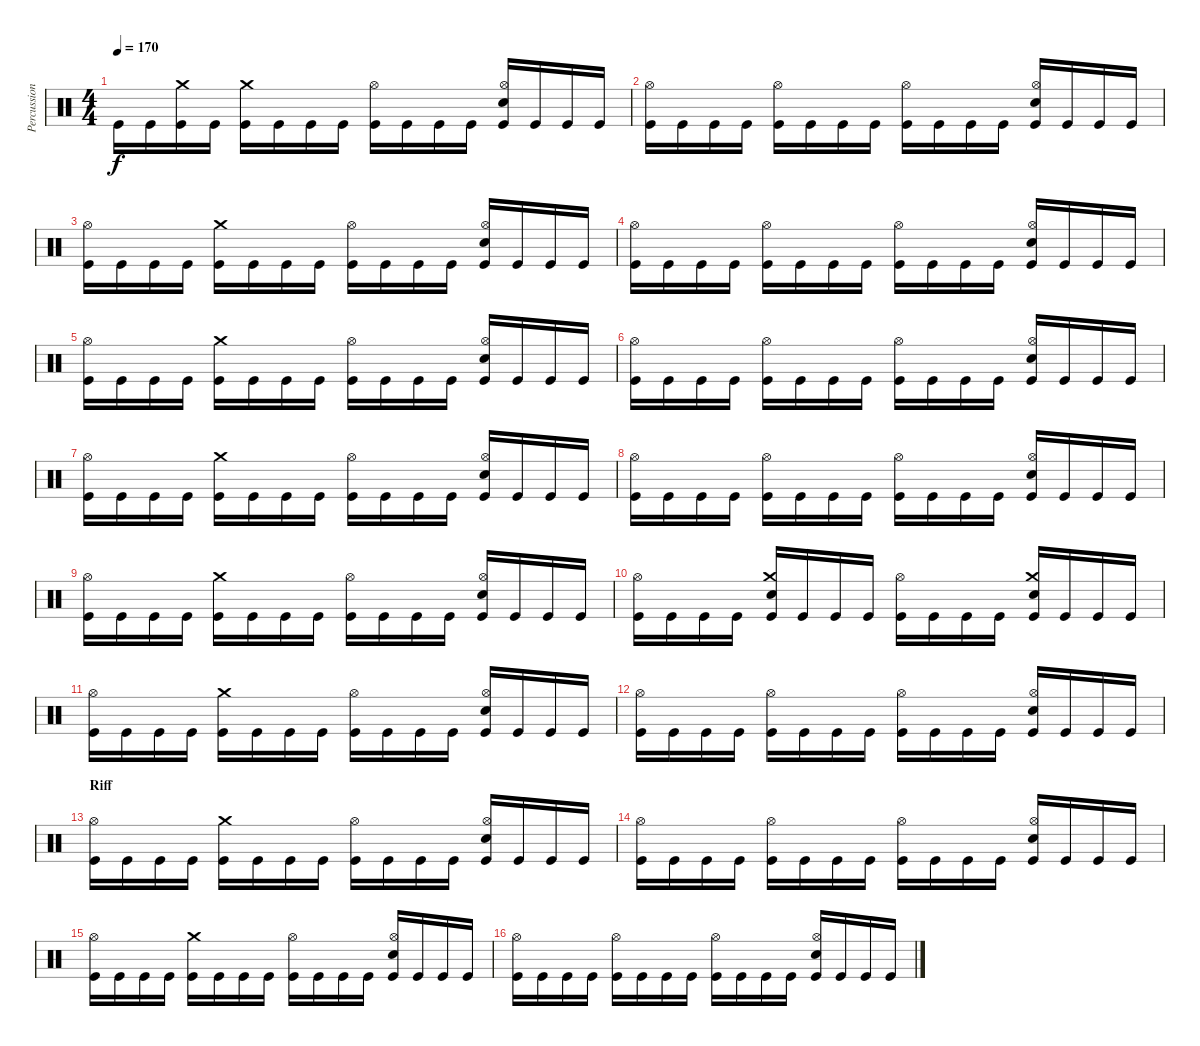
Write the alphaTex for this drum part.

\track ("Percussion" "Percussion") {instrument percussion}
\staff {score}
\articulation defaults
\ts (4 4)
\tempo 170
\clef neutral
\ks c "Kick (hit)".16{dy f} "Kick (hit)".16
("Crash medium (hit)" "Kick (hit)").16 "Kick (hit)".16 ("Crash medium (hit)" "Kick (hit)").16 "Kick (hit)".16 "Kick (hit)".16 "Kick (hit)".16 ("Hi-Hat (open)" "Kick (hit)").16 "Kick (hit)".16 "Kick (hit)".16 "Kick (hit)".16 ("Hi-Hat (open)" "Snare (hit) 2" "Kick (hit)").16 "Kick (hit)".16 "Kick (hit)".16 "Kick (hit)".16 |
("Hi-Hat (open)" "Kick (hit)").16 "Kick (hit)".16 "Kick (hit)".16 "Kick (hit)".16 ("Hi-Hat (open)" "Kick (hit)").16 "Kick (hit)".16 "Kick (hit)".16 "Kick (hit)".16 ("Hi-Hat (open)" "Kick (hit)").16 "Kick (hit)".16 "Kick (hit)".16 "Kick (hit)".16 ("Hi-Hat (open)" "Snare (hit) 2" "Kick (hit)").16 "Kick (hit)".16 "Kick (hit)".16 "Kick (hit)".16 |
("Hi-Hat (open)" "Kick (hit)").16 "Kick (hit)".16 "Kick (hit)".16 "Kick (hit)".16 ("Crash medium (hit)" "Kick (hit)").16 "Kick (hit)".16 "Kick (hit)".16 "Kick (hit)".16 ("Hi-Hat (open)" "Kick (hit)").16 "Kick (hit)".16 "Kick (hit)".16 "Kick (hit)".16 ("Hi-Hat (open)" "Snare (hit) 2" "Kick (hit)").16 "Kick (hit)".16 "Kick (hit)".16 "Kick (hit)".16 |
("Hi-Hat (open)" "Kick (hit)").16 "Kick (hit)".16 "Kick (hit)".16 "Kick (hit)".16 ("Hi-Hat (open)" "Kick (hit)").16 "Kick (hit)".16 "Kick (hit)".16 "Kick (hit)".16 ("Hi-Hat (open)" "Kick (hit)").16 "Kick (hit)".16 "Kick (hit)".16 "Kick (hit)".16 ("Hi-Hat (open)" "Snare (hit) 2" "Kick (hit)").16 "Kick (hit)".16 "Kick (hit)".16 "Kick (hit)".16 |
("Hi-Hat (open)" "Kick (hit)").16 "Kick (hit)".16 "Kick (hit)".16 "Kick (hit)".16 ("Crash medium (hit)" "Kick (hit)").16 "Kick (hit)".16 "Kick (hit)".16 "Kick (hit)".16 ("Hi-Hat (open)" "Kick (hit)").16 "Kick (hit)".16 "Kick (hit)".16 "Kick (hit)".16 ("Hi-Hat (open)" "Snare (hit) 2" "Kick (hit)").16 "Kick (hit)".16 "Kick (hit)".16 "Kick (hit)".16 |
("Hi-Hat (open)" "Kick (hit)").16 "Kick (hit)".16 "Kick (hit)".16 "Kick (hit)".16 ("Hi-Hat (open)" "Kick (hit)").16 "Kick (hit)".16 "Kick (hit)".16 "Kick (hit)".16 ("Hi-Hat (open)" "Kick (hit)").16 "Kick (hit)".16 "Kick (hit)".16 "Kick (hit)".16 ("Hi-Hat (open)" "Snare (hit) 2" "Kick (hit)").16 "Kick (hit)".16 "Kick (hit)".16 "Kick (hit)".16 |
("Hi-Hat (open)" "Kick (hit)").16 "Kick (hit)".16 "Kick (hit)".16 "Kick (hit)".16 ("Crash medium (hit)" "Kick (hit)").16 "Kick (hit)".16 "Kick (hit)".16 "Kick (hit)".16 ("Hi-Hat (open)" "Kick (hit)").16 "Kick (hit)".16 "Kick (hit)".16 "Kick (hit)".16 ("Hi-Hat (open)" "Snare (hit) 2" "Kick (hit)").16 "Kick (hit)".16 "Kick (hit)".16 "Kick (hit)".16 |
("Hi-Hat (open)" "Kick (hit)").16 "Kick (hit)".16 "Kick (hit)".16 "Kick (hit)".16 ("Hi-Hat (open)" "Kick (hit)").16 "Kick (hit)".16 "Kick (hit)".16 "Kick (hit)".16 ("Hi-Hat (open)" "Kick (hit)").16 "Kick (hit)".16 "Kick (hit)".16 "Kick (hit)".16 ("Hi-Hat (open)" "Snare (hit) 2" "Kick (hit)").16 "Kick (hit)".16 "Kick (hit)".16 "Kick (hit)".16 |
("Hi-Hat (open)" "Kick (hit)").16 "Kick (hit)".16 "Kick (hit)".16 "Kick (hit)".16 ("Crash medium (hit)" "Kick (hit)").16 "Kick (hit)".16 "Kick (hit)".16 "Kick (hit)".16 ("Hi-Hat (open)" "Kick (hit)").16 "Kick (hit)".16 "Kick (hit)".16 "Kick (hit)".16 ("Hi-Hat (open)" "Snare (hit) 2" "Kick (hit)").16 "Kick (hit)".16 "Kick (hit)".16 "Kick (hit)".16 |
("Hi-Hat (open)" "Kick (hit)").16 "Kick (hit)".16 "Kick (hit)".16 "Kick (hit)".16 ("Crash medium (hit)" "Snare (hit) 2" "Kick (hit)").16 "Kick (hit)".16 "Kick (hit)".16 "Kick (hit)".16 ("Hi-Hat (open)" "Kick (hit)").16 "Kick (hit)".16 "Kick (hit)".16 "Kick (hit)".16 ("Crash medium (hit)" "Snare (hit) 2" "Kick (hit)").16 "Kick (hit)".16 "Kick (hit)".16 "Kick (hit)".16 |
("Hi-Hat (open)" "Kick (hit)").16 "Kick (hit)".16 "Kick (hit)".16 "Kick (hit)".16 ("Crash medium (hit)" "Kick (hit)").16 "Kick (hit)".16 "Kick (hit)".16 "Kick (hit)".16 ("Hi-Hat (open)" "Kick (hit)").16 "Kick (hit)".16 "Kick (hit)".16 "Kick (hit)".16 ("Hi-Hat (open)" "Snare (hit) 2" "Kick (hit)").16 "Kick (hit)".16 "Kick (hit)".16 "Kick (hit)".16 |
("Hi-Hat (open)" "Kick (hit)").16 "Kick (hit)".16 "Kick (hit)".16 "Kick (hit)".16 ("Hi-Hat (open)" "Kick (hit)").16 "Kick (hit)".16 "Kick (hit)".16 "Kick (hit)".16 ("Hi-Hat (open)" "Kick (hit)").16 "Kick (hit)".16 "Kick (hit)".16 "Kick (hit)".16 ("Hi-Hat (open)" "Snare (hit) 2" "Kick (hit)").16 "Kick (hit)".16 "Kick (hit)".16 "Kick (hit)".16 |
\section ("" "Riff")
("Hi-Hat (open)" "Kick (hit)").16 "Kick (hit)".16 "Kick (hit)".16 "Kick (hit)".16 ("Crash medium (hit)" "Kick (hit)").16 "Kick (hit)".16 "Kick (hit)".16 "Kick (hit)".16 ("Hi-Hat (open)" "Kick (hit)").16 "Kick (hit)".16 "Kick (hit)".16 "Kick (hit)".16 ("Hi-Hat (open)" "Snare (hit) 2" "Kick (hit)").16 "Kick (hit)".16 "Kick (hit)".16 "Kick (hit)".16 |
("Hi-Hat (open)" "Kick (hit)").16 "Kick (hit)".16 "Kick (hit)".16 "Kick (hit)".16 ("Hi-Hat (open)" "Kick (hit)").16 "Kick (hit)".16 "Kick (hit)".16 "Kick (hit)".16 ("Hi-Hat (open)" "Kick (hit)").16 "Kick (hit)".16 "Kick (hit)".16 "Kick (hit)".16 ("Hi-Hat (open)" "Snare (hit) 2" "Kick (hit)").16 "Kick (hit)".16 "Kick (hit)".16 "Kick (hit)".16 |
("Hi-Hat (open)" "Kick (hit)").16 "Kick (hit)".16 "Kick (hit)".16 "Kick (hit)".16 ("Crash medium (hit)" "Kick (hit)").16 "Kick (hit)".16 "Kick (hit)".16 "Kick (hit)".16 ("Hi-Hat (open)" "Kick (hit)").16 "Kick (hit)".16 "Kick (hit)".16 "Kick (hit)".16 ("Hi-Hat (open)" "Snare (hit) 2" "Kick (hit)").16 "Kick (hit)".16 "Kick (hit)".16 "Kick (hit)".16 |
("Hi-Hat (open)" "Kick (hit)").16 "Kick (hit)".16 "Kick (hit)".16 "Kick (hit)".16 ("Hi-Hat (open)" "Kick (hit)").16 "Kick (hit)".16 "Kick (hit)".16 "Kick (hit)".16 ("Hi-Hat (open)" "Kick (hit)").16 "Kick (hit)".16 "Kick (hit)".16 "Kick (hit)".16 ("Hi-Hat (open)" "Snare (hit) 2" "Kick (hit)").16 "Kick (hit)".16 "Kick (hit)".16 "Kick (hit)".16
